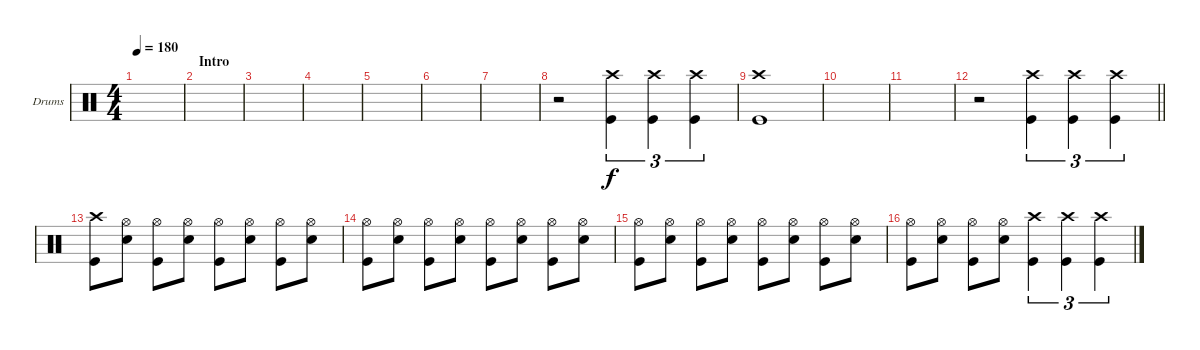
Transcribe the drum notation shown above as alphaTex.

\bracketExtendMode groupsimilarinstruments
\firstSystemTrackNameOrientation horizontal
\otherSystemsTrackNameOrientation horizontal
\track ("Drums" "Drums") {instrument percussion}
\staff {score}
\articulation defaults
\ts (4 4)
\beaming (8 2 2 2 2)
\tempo 180
\clef neutral
\ks c
|
\section ("" "Intro")
|
|
|
|
|
|
r.2 ("Crash high (hit)" "Kick (hit)").4{tu (3 2)} ("Crash high (hit)" "Kick (hit)").4{tu (3 2)} ("Crash high (hit)" "Kick (hit)").4{tu (3 2)} |
("Crash high (hit)" "Kick (hit)").1 |
|
|
\barLineRight lightlight
r.2 ("Crash high (hit)" "Kick (hit)").4{tu (3 2)} ("Crash high (hit)" "Kick (hit)").4{tu (3 2)} ("Crash high (hit)" "Kick (hit)").4{tu (3 2)} |
("Crash high (hit)" "Kick (hit)").8 ("Hi-Hat (open)" "Snare (hit) 2").8 ("Hi-Hat (open)" "Kick (hit)").8 ("Hi-Hat (open)" "Snare (hit) 2").8 ("Hi-Hat (open)" "Kick (hit)").8 ("Hi-Hat (open)" "Snare (hit) 2").8 ("Hi-Hat (open)" "Kick (hit)").8 ("Hi-Hat (open)" "Snare (hit) 2").8 |
("Hi-Hat (open)" "Kick (hit)").8 ("Hi-Hat (open)" "Snare (hit) 2").8 ("Hi-Hat (open)" "Kick (hit)").8 ("Hi-Hat (open)" "Snare (hit) 2").8 ("Hi-Hat (open)" "Kick (hit)").8 ("Hi-Hat (open)" "Snare (hit) 2").8 ("Hi-Hat (open)" "Kick (hit)").8 ("Hi-Hat (open)" "Snare (hit) 2").8 |
("Hi-Hat (open)" "Kick (hit)").8 ("Hi-Hat (open)" "Snare (hit) 2").8 ("Hi-Hat (open)" "Kick (hit)").8 ("Hi-Hat (open)" "Snare (hit) 2").8 ("Hi-Hat (open)" "Kick (hit)").8 ("Hi-Hat (open)" "Snare (hit) 2").8 ("Hi-Hat (open)" "Kick (hit)").8 ("Hi-Hat (open)" "Snare (hit) 2").8 |
("Hi-Hat (open)" "Kick (hit)").8 ("Hi-Hat (open)" "Snare (hit) 2").8 ("Hi-Hat (open)" "Kick (hit)").8 ("Hi-Hat (open)" "Snare (hit) 2").8 ("Crash high (hit)" "Kick (hit)").4{tu (3 2)} ("Crash high (hit)" "Kick (hit)").4{tu (3 2)} ("Crash high (hit)" "Kick (hit)").4{tu (3 2)}
